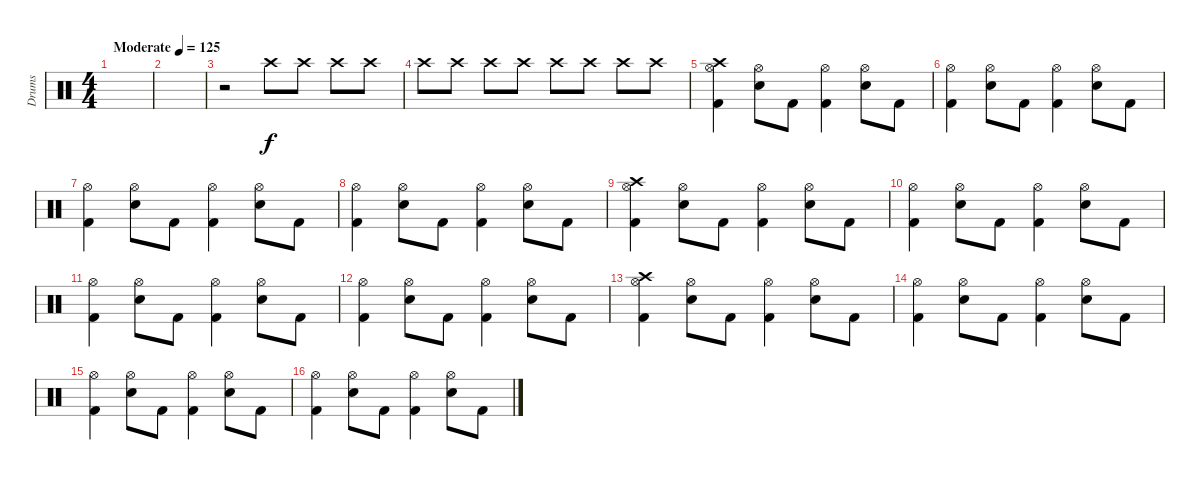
\track ("Drums" "Drums") {instrument percussion}
\staff {score}
\articulation defaults
\ts (4 4)
\tempo (125 "Moderate")
\clef neutral
\ks c
|
|
r.2 "Crash high (hit)".8 "Crash high (hit)".8 "Crash high (hit)".8 "Crash high (hit)".8 |
"Crash high (hit)".8 "Crash high (hit)".8 "Crash high (hit)".8 "Crash high (hit)".8 "Crash high (hit)".8 "Crash high (hit)".8 "Crash high (hit)".8 "Crash high (hit)".8 |
("Crash high (hit)" "Hi-Hat (open)" "Kick (hit) 2").4 ("Hi-Hat (open)" "Snare (hit) 2").8 "Kick (hit) 2".8 ("Hi-Hat (open)" "Kick (hit) 2").4 ("Hi-Hat (open)" "Snare (hit) 2").8 "Kick (hit) 2".8 |
("Hi-Hat (open)" "Kick (hit) 2").4 ("Hi-Hat (open)" "Snare (hit) 2").8 "Kick (hit) 2".8 ("Hi-Hat (open)" "Kick (hit) 2").4 ("Hi-Hat (open)" "Snare (hit) 2").8 "Kick (hit) 2".8 |
("Hi-Hat (open)" "Kick (hit) 2").4 ("Hi-Hat (open)" "Snare (hit) 2").8 "Kick (hit) 2".8 ("Hi-Hat (open)" "Kick (hit) 2").4 ("Hi-Hat (open)" "Snare (hit) 2").8 "Kick (hit) 2".8 |
("Hi-Hat (open)" "Kick (hit) 2").4 ("Hi-Hat (open)" "Snare (hit) 2").8 "Kick (hit) 2".8 ("Hi-Hat (open)" "Kick (hit) 2").4 ("Hi-Hat (open)" "Snare (hit) 2").8 "Kick (hit) 2".8 |
("Crash high (hit)" "Hi-Hat (open)" "Kick (hit) 2").4 ("Hi-Hat (open)" "Snare (hit) 2").8 "Kick (hit) 2".8 ("Hi-Hat (open)" "Kick (hit) 2").4 ("Hi-Hat (open)" "Snare (hit) 2").8 "Kick (hit) 2".8 |
("Hi-Hat (open)" "Kick (hit) 2").4 ("Hi-Hat (open)" "Snare (hit) 2").8 "Kick (hit) 2".8 ("Hi-Hat (open)" "Kick (hit) 2").4 ("Hi-Hat (open)" "Snare (hit) 2").8 "Kick (hit) 2".8 |
("Hi-Hat (open)" "Kick (hit) 2").4 ("Hi-Hat (open)" "Snare (hit) 2").8 "Kick (hit) 2".8 ("Hi-Hat (open)" "Kick (hit) 2").4 ("Hi-Hat (open)" "Snare (hit) 2").8 "Kick (hit) 2".8 |
("Hi-Hat (open)" "Kick (hit) 2").4 ("Hi-Hat (open)" "Snare (hit) 2").8 "Kick (hit) 2".8 ("Hi-Hat (open)" "Kick (hit) 2").4 ("Hi-Hat (open)" "Snare (hit) 2").8 "Kick (hit) 2".8 |
("Crash high (hit)" "Hi-Hat (open)" "Kick (hit) 2").4 ("Hi-Hat (open)" "Snare (hit) 2").8 "Kick (hit) 2".8 ("Hi-Hat (open)" "Kick (hit) 2").4 ("Hi-Hat (open)" "Snare (hit) 2").8 "Kick (hit) 2".8 |
("Hi-Hat (open)" "Kick (hit) 2").4 ("Hi-Hat (open)" "Snare (hit) 2").8 "Kick (hit) 2".8 ("Hi-Hat (open)" "Kick (hit) 2").4 ("Hi-Hat (open)" "Snare (hit) 2").8 "Kick (hit) 2".8 |
("Hi-Hat (open)" "Kick (hit) 2").4 ("Hi-Hat (open)" "Snare (hit) 2").8 "Kick (hit) 2".8 ("Hi-Hat (open)" "Kick (hit) 2").4 ("Hi-Hat (open)" "Snare (hit) 2").8 "Kick (hit) 2".8 |
("Hi-Hat (open)" "Kick (hit) 2").4 ("Hi-Hat (open)" "Snare (hit) 2").8 "Kick (hit) 2".8 ("Hi-Hat (open)" "Kick (hit) 2").4 ("Hi-Hat (open)" "Snare (hit) 2").8 "Kick (hit) 2".8
